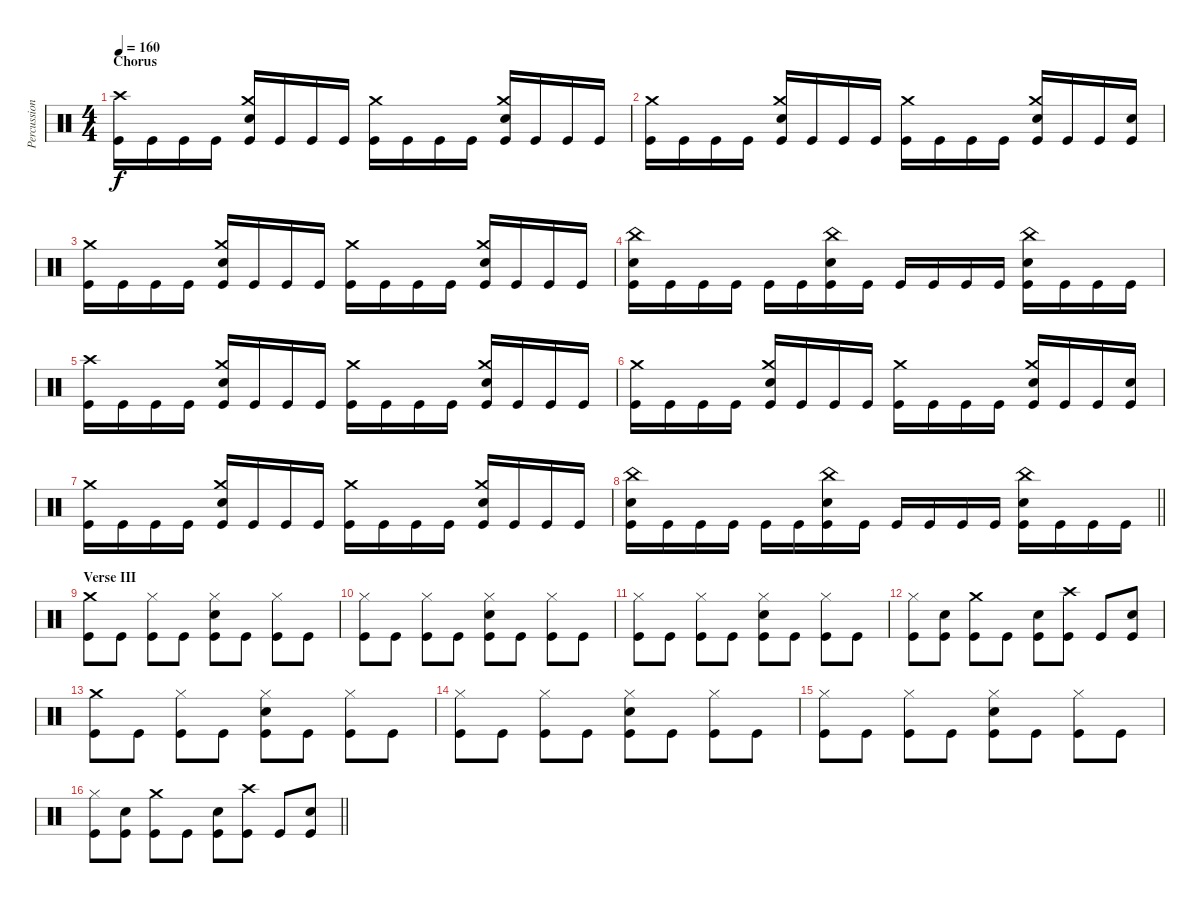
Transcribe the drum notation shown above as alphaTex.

\track ("Percussion" "Percussion") {instrument percussion}
\staff {score}
\articulation defaults
\ts (4 4)
\section ("" "Chorus")
\tempo 160
\clef neutral
\ks c
("Crash high (hit)" "Kick (hit)").16{dy f} "Kick (hit)".16 "Kick (hit)".16 "Kick (hit)".16 ("Crash medium (hit)" "Electric Snare (hit)" "Kick (hit)").16 "Kick (hit)".16 "Kick (hit)".16 "Kick (hit)".16 ("Crash medium (hit)" "Kick (hit)").16 "Kick (hit)".16 "Kick (hit)".16 "Kick (hit)".16 ("Crash medium (hit)" "Electric Snare (hit)" "Kick (hit)").16 "Kick (hit)".16 "Kick (hit)".16 "Kick (hit)".16 |
("Crash medium (hit)" "Kick (hit)").16 "Kick (hit)".16 "Kick (hit)".16 "Kick (hit)".16 ("Crash medium (hit)" "Electric Snare (hit)" "Kick (hit)").16 "Kick (hit)".16 "Kick (hit)".16 "Kick (hit)".16 ("Crash medium (hit)" "Kick (hit)").16 "Kick (hit)".16 "Kick (hit)".16 "Kick (hit)".16 ("Crash medium (hit)" "Electric Snare (hit)" "Kick (hit)").16 "Kick (hit)".16 "Kick (hit)".16 ("Electric Snare (hit)" "Kick (hit)").16 |
("Crash medium (hit)" "Kick (hit)").16 "Kick (hit)".16 "Kick (hit)".16 "Kick (hit)".16 ("Crash medium (hit)" "Electric Snare (hit)" "Kick (hit)").16 "Kick (hit)".16 "Kick (hit)".16 "Kick (hit)".16 ("Crash medium (hit)" "Kick (hit)").16 "Kick (hit)".16 "Kick (hit)".16 "Kick (hit)".16 ("Crash medium (hit)" "Electric Snare (hit)" "Kick (hit)").16 "Kick (hit)".16 "Kick (hit)".16 "Kick (hit)".16 |
("China (hit)" "Electric Snare (hit)" "Kick (hit)").16 "Kick (hit)".16 "Kick (hit)".16 "Kick (hit)".16 "Kick (hit)".16 "Kick (hit)".16 ("China (hit)" "Electric Snare (hit)" "Kick (hit)").16 "Kick (hit)".16 "Kick (hit)".16 "Kick (hit)".16 "Kick (hit)".16 "Kick (hit)".16 ("China (hit)" "Electric Snare (hit)" "Kick (hit)").16 "Kick (hit)".16 "Kick (hit)".16 "Kick (hit)".16 |
("Crash high (hit)" "Kick (hit)").16 "Kick (hit)".16 "Kick (hit)".16 "Kick (hit)".16 ("Crash medium (hit)" "Electric Snare (hit)" "Kick (hit)").16 "Kick (hit)".16 "Kick (hit)".16 "Kick (hit)".16 ("Crash medium (hit)" "Kick (hit)").16 "Kick (hit)".16 "Kick (hit)".16 "Kick (hit)".16 ("Crash medium (hit)" "Electric Snare (hit)" "Kick (hit)").16 "Kick (hit)".16 "Kick (hit)".16 "Kick (hit)".16 |
("Crash medium (hit)" "Kick (hit)").16 "Kick (hit)".16 "Kick (hit)".16 "Kick (hit)".16 ("Crash medium (hit)" "Electric Snare (hit)" "Kick (hit)").16 "Kick (hit)".16 "Kick (hit)".16 "Kick (hit)".16 ("Crash medium (hit)" "Kick (hit)").16 "Kick (hit)".16 "Kick (hit)".16 "Kick (hit)".16 ("Crash medium (hit)" "Electric Snare (hit)" "Kick (hit)").16 "Kick (hit)".16 "Kick (hit)".16 ("Electric Snare (hit)" "Kick (hit)").16 |
("Crash medium (hit)" "Kick (hit)").16 "Kick (hit)".16 "Kick (hit)".16 "Kick (hit)".16 ("Crash medium (hit)" "Electric Snare (hit)" "Kick (hit)").16 "Kick (hit)".16 "Kick (hit)".16 "Kick (hit)".16 ("Crash medium (hit)" "Kick (hit)").16 "Kick (hit)".16 "Kick (hit)".16 "Kick (hit)".16 ("Crash medium (hit)" "Electric Snare (hit)" "Kick (hit)").16 "Kick (hit)".16 "Kick (hit)".16 "Kick (hit)".16 |
\barLineRight lightlight
("China (hit)" "Electric Snare (hit)" "Kick (hit)").16 "Kick (hit)".16 "Kick (hit)".16 "Kick (hit)".16 "Kick (hit)".16 "Kick (hit)".16 ("China (hit)" "Electric Snare (hit)" "Kick (hit)").16 "Kick (hit)".16 "Kick (hit)".16 "Kick (hit)".16 "Kick (hit)".16 "Kick (hit)".16 ("China (hit)" "Electric Snare (hit)" "Kick (hit)").16 "Kick (hit)".16 "Kick (hit)".16 "Kick (hit)".16 |
\section ("" "Verse III")
("Crash medium (hit)" "Kick (hit)").8 "Kick (hit)".8 ("Hi-Hat (closed)" "Kick (hit)").8 "Kick (hit)".8 ("Hi-Hat (closed)" "Electric Snare (hit)" "Kick (hit)").8 "Kick (hit)".8 ("Hi-Hat (closed)" "Kick (hit)").8 "Kick (hit)".8 |
("Hi-Hat (closed)" "Kick (hit)").8 "Kick (hit)".8 ("Hi-Hat (closed)" "Kick (hit)").8 "Kick (hit)".8 ("Hi-Hat (closed)" "Electric Snare (hit)" "Kick (hit)").8 "Kick (hit)".8 ("Hi-Hat (closed)" "Kick (hit)").8 "Kick (hit)".8 |
("Hi-Hat (closed)" "Kick (hit)").8 "Kick (hit)".8 ("Hi-Hat (closed)" "Kick (hit)").8 "Kick (hit)".8 ("Hi-Hat (closed)" "Electric Snare (hit)" "Kick (hit)").8 "Kick (hit)".8 ("Hi-Hat (closed)" "Kick (hit)").8 "Kick (hit)".8 |
("Hi-Hat (closed)" "Kick (hit)").8 ("Electric Snare (hit)" "Kick (hit)").8 ("Crash medium (hit)" "Kick (hit)").8 "Kick (hit)".8 ("Electric Snare (hit)" "Kick (hit)").8 ("Crash high (hit)" "Kick (hit)").8 "Kick (hit)".8 ("Electric Snare (hit)" "Kick (hit)").8 |
("Crash medium (hit)" "Kick (hit)").8 "Kick (hit)".8 ("Hi-Hat (closed)" "Kick (hit)").8 "Kick (hit)".8 ("Hi-Hat (closed)" "Electric Snare (hit)" "Kick (hit)").8 "Kick (hit)".8 ("Hi-Hat (closed)" "Kick (hit)").8 "Kick (hit)".8 |
("Hi-Hat (closed)" "Kick (hit)").8 "Kick (hit)".8 ("Hi-Hat (closed)" "Kick (hit)").8 "Kick (hit)".8 ("Hi-Hat (closed)" "Electric Snare (hit)" "Kick (hit)").8 "Kick (hit)".8 ("Hi-Hat (closed)" "Kick (hit)").8 "Kick (hit)".8 |
("Hi-Hat (closed)" "Kick (hit)").8 "Kick (hit)".8 ("Hi-Hat (closed)" "Kick (hit)").8 "Kick (hit)".8 ("Hi-Hat (closed)" "Electric Snare (hit)" "Kick (hit)").8 "Kick (hit)".8 ("Hi-Hat (closed)" "Kick (hit)").8 "Kick (hit)".8 |
\barLineRight lightlight
("Hi-Hat (closed)" "Kick (hit)").8 ("Electric Snare (hit)" "Kick (hit)").8 ("Crash medium (hit)" "Kick (hit)").8 "Kick (hit)".8 ("Electric Snare (hit)" "Kick (hit)").8 ("Crash high (hit)" "Kick (hit)").8 "Kick (hit)".8 ("Electric Snare (hit)" "Kick (hit)").8
